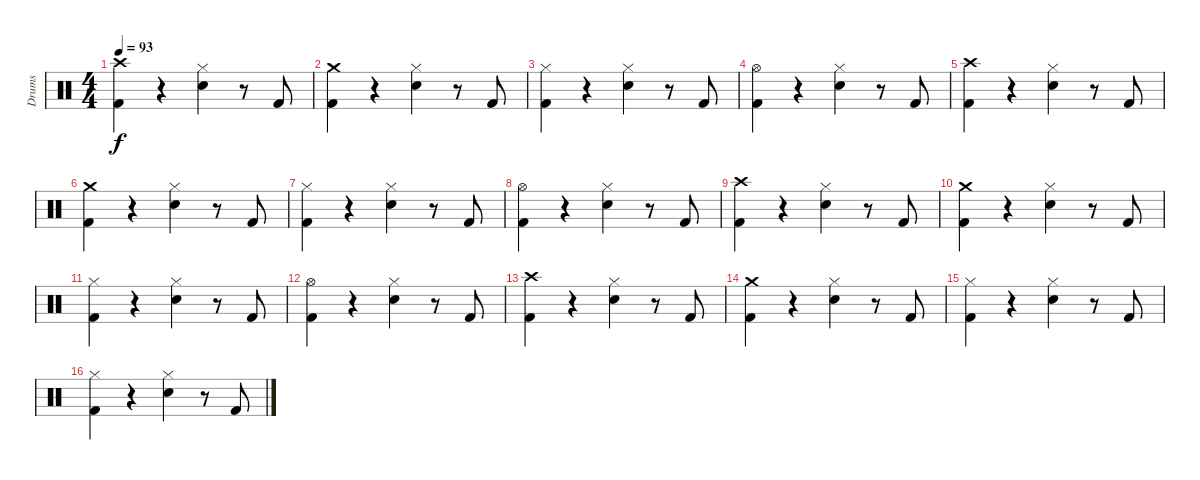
\track ("Drums" "Drums") {instrument percussion}
\staff {score}
\articulation defaults
\ts (4 4)
\tempo 93
\clef neutral
\ks c
("Crash high (hit)" "Kick (hit) 2").4{dy f} r.4 ("Hi-Hat (closed)" "Snare (hit) 2").4 r.8 "Kick (hit) 2".8 |
("Crash medium (hit)" "Kick (hit) 2").4 r.4 ("Hi-Hat (closed)" "Snare (hit) 2").4 r.8 "Kick (hit) 2".8 |
("Hi-Hat (closed)" "Kick (hit) 2").4 r.4 ("Hi-Hat (closed)" "Snare (hit) 2").4 r.8 "Kick (hit) 2".8 |
("Hi-Hat (open)" "Kick (hit) 2").4 r.4 ("Hi-Hat (closed)" "Snare (hit) 2").4 r.8 "Kick (hit) 2".8 |
("Crash high (hit)" "Kick (hit) 2").4 r.4 ("Hi-Hat (closed)" "Snare (hit) 2").4 r.8 "Kick (hit) 2".8 |
("Crash medium (hit)" "Kick (hit) 2").4 r.4 ("Hi-Hat (closed)" "Snare (hit) 2").4 r.8 "Kick (hit) 2".8 |
("Hi-Hat (closed)" "Kick (hit) 2").4 r.4 ("Hi-Hat (closed)" "Snare (hit) 2").4 r.8 "Kick (hit) 2".8 |
("Hi-Hat (open)" "Kick (hit) 2").4 r.4 ("Hi-Hat (closed)" "Snare (hit) 2").4 r.8 "Kick (hit) 2".8 |
("Crash high (hit)" "Kick (hit) 2").4 r.4 ("Hi-Hat (closed)" "Snare (hit) 2").4 r.8 "Kick (hit) 2".8 |
("Crash medium (hit)" "Kick (hit) 2").4 r.4 ("Hi-Hat (closed)" "Snare (hit) 2").4 r.8 "Kick (hit) 2".8 |
("Hi-Hat (closed)" "Kick (hit) 2").4 r.4 ("Hi-Hat (closed)" "Snare (hit) 2").4 r.8 "Kick (hit) 2".8 |
("Hi-Hat (open)" "Kick (hit) 2").4 r.4 ("Hi-Hat (closed)" "Snare (hit) 2").4 r.8 "Kick (hit) 2".8 |
("Crash high (hit)" "Kick (hit) 2").4 r.4 ("Hi-Hat (closed)" "Snare (hit) 2").4 r.8 "Kick (hit) 2".8 |
("Crash medium (hit)" "Kick (hit) 2").4 r.4 ("Hi-Hat (closed)" "Snare (hit) 2").4 r.8 "Kick (hit) 2".8 |
("Hi-Hat (closed)" "Kick (hit) 2").4 r.4 ("Hi-Hat (closed)" "Snare (hit) 2").4 r.8 "Kick (hit) 2".8 |
("Hi-Hat (closed)" "Kick (hit) 2").4 r.4 ("Hi-Hat (closed)" "Snare (hit) 2").4 r.8 "Kick (hit) 2".8
